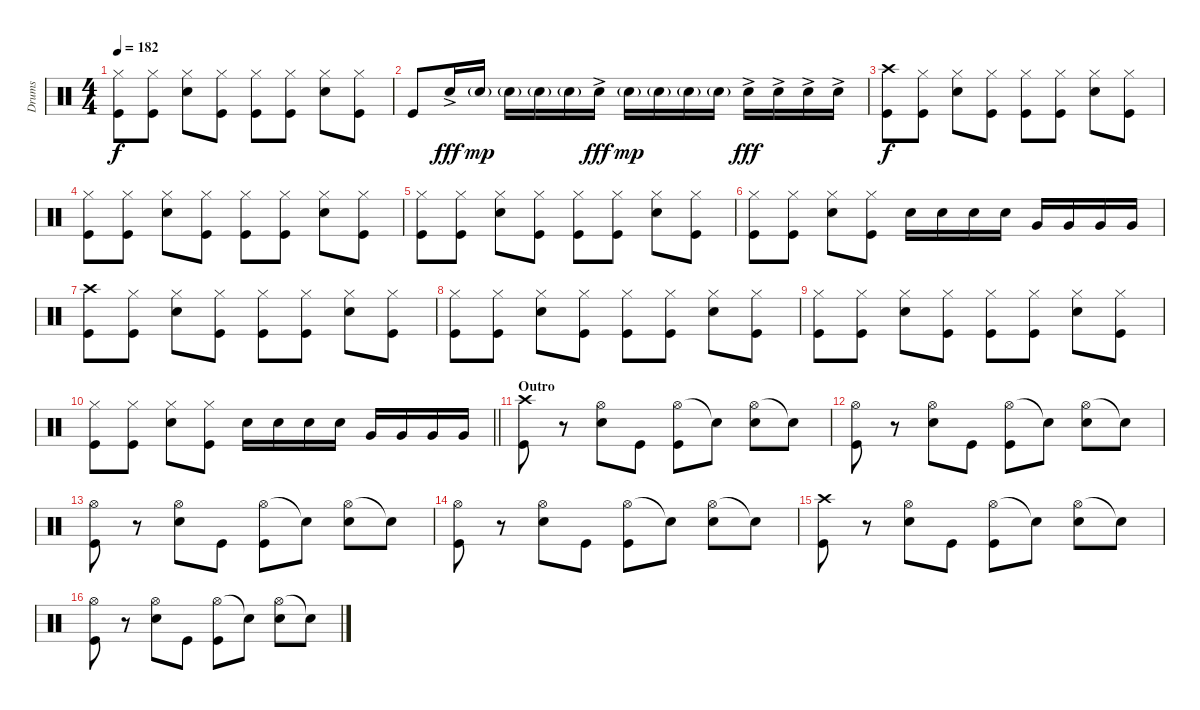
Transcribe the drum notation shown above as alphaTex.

\track ("Drums" "Drums") {instrument percussion}
\staff {score}
\articulation defaults
\ts (4 4)
\tempo 182
\clef neutral
\ks c
("Hi-Hat (closed)" "Kick (hit)").8{dy f} ("Hi-Hat (closed)" "Kick (hit)").8 ("Hi-Hat (closed)" "Snare (hit) 2").8 ("Hi-Hat (closed)" "Kick (hit)").8 ("Hi-Hat (closed)" "Kick (hit)").8 ("Hi-Hat (closed)" "Kick (hit)").8 ("Hi-Hat (closed)" "Snare (hit) 2").8 ("Hi-Hat (closed)" "Kick (hit)").8 |
"Kick (hit)".8 "Snare (hit) 2"{ac}.16{dy fff} "Snare (hit) 2"{g}.16{dy mp} "Snare (hit) 2"{g}.16 "Snare (hit) 2"{g}.16 "Snare (hit) 2"{g}.16 "Snare (hit) 2"{ac}.16{dy fff} "Snare (hit) 2"{g}.16{dy mp} "Snare (hit) 2"{g}.16 "Snare (hit) 2"{g}.16 "Snare (hit) 2"{g}.16 "Snare (hit) 2"{ac}.16{dy fff} "Snare (hit) 2"{ac}.16 "Snare (hit) 2"{ac}.16 "Snare (hit) 2"{ac}.16 |
("Crash high (hit)" "Kick (hit)").8{dy f} ("Hi-Hat (closed)" "Kick (hit)").8 ("Hi-Hat (closed)" "Snare (hit) 2").8 ("Hi-Hat (closed)" "Kick (hit)").8 ("Hi-Hat (closed)" "Kick (hit)").8 ("Hi-Hat (closed)" "Kick (hit)").8 ("Hi-Hat (closed)" "Snare (hit) 2").8 ("Hi-Hat (closed)" "Kick (hit)").8 |
("Hi-Hat (closed)" "Kick (hit)").8 ("Hi-Hat (closed)" "Kick (hit)").8 ("Hi-Hat (closed)" "Snare (hit) 2").8 ("Hi-Hat (closed)" "Kick (hit)").8 ("Hi-Hat (closed)" "Kick (hit)").8 ("Hi-Hat (closed)" "Kick (hit)").8 ("Hi-Hat (closed)" "Snare (hit) 2").8 ("Hi-Hat (closed)" "Kick (hit)").8 |
("Hi-Hat (closed)" "Kick (hit)").8 ("Hi-Hat (closed)" "Kick (hit)").8 ("Hi-Hat (closed)" "Snare (hit) 2").8 ("Hi-Hat (closed)" "Kick (hit)").8 ("Hi-Hat (closed)" "Kick (hit)").8 ("Hi-Hat (closed)" "Kick (hit)").8 ("Hi-Hat (closed)" "Snare (hit) 2").8 ("Hi-Hat (closed)" "Kick (hit)").8 |
("Hi-Hat (closed)" "Kick (hit)").8 ("Hi-Hat (closed)" "Kick (hit)").8 ("Hi-Hat (closed)" "Snare (hit) 2").8 ("Hi-Hat (closed)" "Kick (hit)").8 "Snare (hit) 2".16 "Snare (hit) 2".16 "Snare (hit) 2".16 "Snare (hit) 2".16 "Very Low Tom (hit)".16 "Very Low Tom (hit)".16 "Very Low Tom (hit)".16 "Very Low Tom (hit)".16 |
("Crash high (hit)" "Kick (hit)").8 ("Hi-Hat (closed)" "Kick (hit)").8 ("Hi-Hat (closed)" "Snare (hit) 2").8 ("Hi-Hat (closed)" "Kick (hit)").8 ("Hi-Hat (closed)" "Kick (hit)").8 ("Hi-Hat (closed)" "Kick (hit)").8 ("Hi-Hat (closed)" "Snare (hit) 2").8 ("Hi-Hat (closed)" "Kick (hit)").8 |
("Hi-Hat (closed)" "Kick (hit)").8 ("Hi-Hat (closed)" "Kick (hit)").8 ("Hi-Hat (closed)" "Snare (hit) 2").8 ("Hi-Hat (closed)" "Kick (hit)").8 ("Hi-Hat (closed)" "Kick (hit)").8 ("Hi-Hat (closed)" "Kick (hit)").8 ("Hi-Hat (closed)" "Snare (hit) 2").8 ("Hi-Hat (closed)" "Kick (hit)").8 |
("Hi-Hat (closed)" "Kick (hit)").8 ("Hi-Hat (closed)" "Kick (hit)").8 ("Hi-Hat (closed)" "Snare (hit) 2").8 ("Hi-Hat (closed)" "Kick (hit)").8 ("Hi-Hat (closed)" "Kick (hit)").8 ("Hi-Hat (closed)" "Kick (hit)").8 ("Hi-Hat (closed)" "Snare (hit) 2").8 ("Hi-Hat (closed)" "Kick (hit)").8 |
\barLineRight lightlight
("Hi-Hat (closed)" "Kick (hit)").8 ("Hi-Hat (closed)" "Kick (hit)").8 ("Hi-Hat (closed)" "Snare (hit) 2").8 ("Hi-Hat (closed)" "Kick (hit)").8 "Snare (hit) 2".16 "Snare (hit) 2".16 "Snare (hit) 2".16 "Snare (hit) 2".16 "Very Low Tom (hit)".16 "Very Low Tom (hit)".16 "Very Low Tom (hit)".16 "Very Low Tom (hit)".16 |
\section ("" "Outro")
("Crash high (hit)" "Kick (hit)").8 r.8 ("Hi-Hat (open)" "Snare (hit) 2").8 "Kick (hit)".8 ("Hi-Hat (open)" "Kick (hit)").8 "Snare (hit)"{t}.8 ("Hi-Hat (open)" "Snare (hit) 2").8 "Snare (hit)"{t}.8 |
("Hi-Hat (open)" "Kick (hit)").8 r.8 ("Hi-Hat (open)" "Snare (hit) 2").8 "Kick (hit)".8 ("Hi-Hat (open)" "Kick (hit)").8 "Snare (hit)"{t}.8 ("Hi-Hat (open)" "Snare (hit) 2").8 "Snare (hit)"{t}.8 |
("Hi-Hat (open)" "Kick (hit)").8 r.8 ("Hi-Hat (open)" "Snare (hit) 2").8 "Kick (hit)".8 ("Hi-Hat (open)" "Kick (hit)").8 "Snare (hit)"{t}.8 ("Hi-Hat (open)" "Snare (hit) 2").8 "Snare (hit)"{t}.8 |
("Hi-Hat (open)" "Kick (hit)").8 r.8 ("Hi-Hat (open)" "Snare (hit) 2").8 "Kick (hit)".8 ("Hi-Hat (open)" "Kick (hit)").8 "Snare (hit)"{t}.8 ("Hi-Hat (open)" "Snare (hit) 2").8 "Snare (hit)"{t}.8 |
("Crash high (hit)" "Kick (hit)").8 r.8 ("Hi-Hat (open)" "Snare (hit) 2").8 "Kick (hit)".8 ("Hi-Hat (open)" "Kick (hit)").8 "Snare (hit)"{t}.8 ("Hi-Hat (open)" "Snare (hit) 2").8 "Snare (hit)"{t}.8 |
("Hi-Hat (open)" "Kick (hit)").8 r.8 ("Hi-Hat (open)" "Snare (hit) 2").8 "Kick (hit)".8 ("Hi-Hat (open)" "Kick (hit)").8 "Snare (hit)"{t}.8 ("Hi-Hat (open)" "Snare (hit) 2").8 "Snare (hit)"{t}.8
